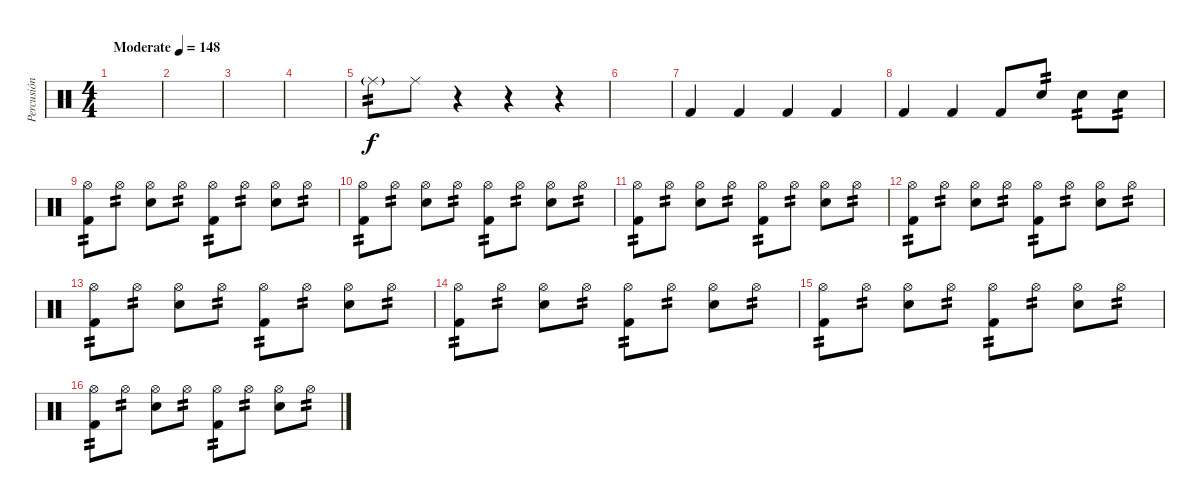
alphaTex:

\track ("Percusión" "Percusión") {instrument percussion}
\staff {score}
\articulation defaults
\ts (4 4)
\tempo (148 "Moderate")
\clef neutral
\ks c
|
|
|
|
"Ride (middle)"{g}.8{tp 2} "Ride (middle)".8{dy f} r.4 r.4 r.4 |
|
"Kick (hit) 2".4 "Kick (hit) 2".4 "Kick (hit) 2".4 "Kick (hit) 2".4 |
"Kick (hit) 2".4 "Kick (hit) 2".4 "Kick (hit) 2".8 "Electric Snare (hit)".8{tp 2} "Electric Snare (hit)".8{tp 2} "Electric Snare (hit)".8{tp 2} |
("Hi-Hat (open)" "Kick (hit) 2").8{tp 2} "Hi-Hat (open)".8{tp 2} ("Hi-Hat (open)" "Electric Snare (hit)").8 "Hi-Hat (open)".8{tp 2} ("Hi-Hat (open)" "Kick (hit) 2").8{tp 2} "Hi-Hat (open)".8{tp 2} ("Hi-Hat (open)" "Electric Snare (hit)").8 "Hi-Hat (open)".8{tp 2} |
("Hi-Hat (open)" "Kick (hit) 2").8{tp 2} "Hi-Hat (open)".8{tp 2} ("Hi-Hat (open)" "Electric Snare (hit)").8 "Hi-Hat (open)".8{tp 2} ("Hi-Hat (open)" "Kick (hit) 2").8{tp 2} "Hi-Hat (open)".8{tp 2} ("Hi-Hat (open)" "Electric Snare (hit)").8 "Hi-Hat (open)".8{tp 2} |
("Hi-Hat (open)" "Kick (hit) 2").8{tp 2} "Hi-Hat (open)".8{tp 2} ("Hi-Hat (open)" "Electric Snare (hit)").8 "Hi-Hat (open)".8{tp 2} ("Hi-Hat (open)" "Kick (hit) 2").8{tp 2} "Hi-Hat (open)".8{tp 2} ("Hi-Hat (open)" "Electric Snare (hit)").8 "Hi-Hat (open)".8{tp 2} |
("Hi-Hat (open)" "Kick (hit) 2").8{tp 2} "Hi-Hat (open)".8{tp 2} ("Hi-Hat (open)" "Electric Snare (hit)").8 "Hi-Hat (open)".8{tp 2} ("Hi-Hat (open)" "Kick (hit) 2").8{tp 2} "Hi-Hat (open)".8{tp 2} ("Hi-Hat (open)" "Electric Snare (hit)").8 "Hi-Hat (open)".8{tp 2} |
("Hi-Hat (open)" "Kick (hit) 2").8{tp 2} "Hi-Hat (open)".8{tp 2} ("Hi-Hat (open)" "Electric Snare (hit)").8 "Hi-Hat (open)".8{tp 2} ("Hi-Hat (open)" "Kick (hit) 2").8{tp 2} "Hi-Hat (open)".8{tp 2} ("Hi-Hat (open)" "Electric Snare (hit)").8 "Hi-Hat (open)".8{tp 2} |
("Hi-Hat (open)" "Kick (hit) 2").8{tp 2} "Hi-Hat (open)".8{tp 2} ("Hi-Hat (open)" "Electric Snare (hit)").8 "Hi-Hat (open)".8{tp 2} ("Hi-Hat (open)" "Kick (hit) 2").8{tp 2} "Hi-Hat (open)".8{tp 2} ("Hi-Hat (open)" "Electric Snare (hit)").8 "Hi-Hat (open)".8{tp 2} |
("Hi-Hat (open)" "Kick (hit) 2").8{tp 2} "Hi-Hat (open)".8{tp 2} ("Hi-Hat (open)" "Electric Snare (hit)").8 "Hi-Hat (open)".8{tp 2} ("Hi-Hat (open)" "Kick (hit) 2").8{tp 2} "Hi-Hat (open)".8{tp 2} ("Hi-Hat (open)" "Electric Snare (hit)").8 "Hi-Hat (open)".8{tp 2} |
("Hi-Hat (open)" "Kick (hit) 2").8{tp 2} "Hi-Hat (open)".8{tp 2} ("Hi-Hat (open)" "Electric Snare (hit)").8 "Hi-Hat (open)".8{tp 2} ("Hi-Hat (open)" "Kick (hit) 2").8{tp 2} "Hi-Hat (open)".8{tp 2} ("Hi-Hat (open)" "Electric Snare (hit)").8 "Hi-Hat (open)".8{tp 2}
